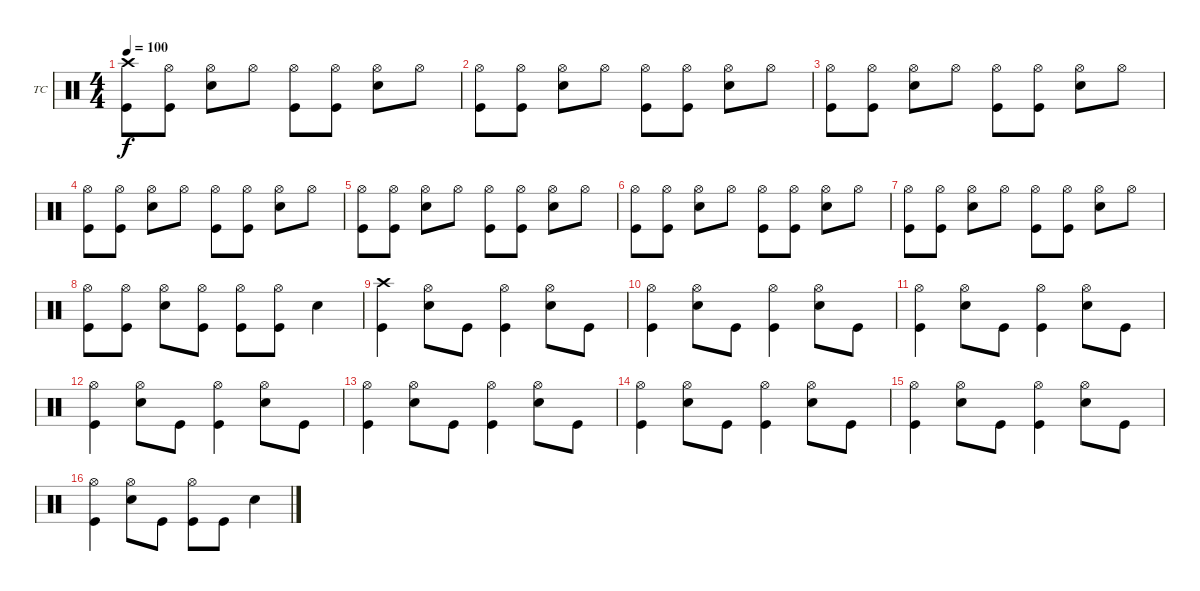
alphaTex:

\defaultSystemsLayout 4
\bracketExtendMode groupsimilarinstruments
\firstSystemTrackNameOrientation horizontal
\otherSystemsTrackNameOrientation horizontal
\track ("Drums - Tre Cool" "TC") {instrument percussion}
\staff {score}
\articulation defaults
\ts (4 4)
\tempo 100
\clef neutral
\ks c
("Crash high (hit)" "Kick (hit)").8{dy f} ("Hi-Hat (open)" "Kick (hit)").8 ("Hi-Hat (open)" "Snare (hit) 2").8 "Hi-Hat (open)".8 ("Hi-Hat (open)" "Kick (hit)").8 ("Hi-Hat (open)" "Kick (hit)").8 ("Hi-Hat (open)" "Snare (hit) 2").8 "Hi-Hat (open)".8 |
("Hi-Hat (open)" "Kick (hit)").8 ("Hi-Hat (open)" "Kick (hit)").8 ("Hi-Hat (open)" "Snare (hit) 2").8 "Hi-Hat (open)".8 ("Hi-Hat (open)" "Kick (hit)").8 ("Hi-Hat (open)" "Kick (hit)").8 ("Hi-Hat (open)" "Snare (hit) 2").8 "Hi-Hat (open)".8 |
("Hi-Hat (open)" "Kick (hit)").8 ("Hi-Hat (open)" "Kick (hit)").8 ("Hi-Hat (open)" "Snare (hit) 2").8 "Hi-Hat (open)".8 ("Hi-Hat (open)" "Kick (hit)").8 ("Hi-Hat (open)" "Kick (hit)").8 ("Hi-Hat (open)" "Snare (hit) 2").8 "Hi-Hat (open)".8 |
("Hi-Hat (open)" "Kick (hit)").8 ("Hi-Hat (open)" "Kick (hit)").8 ("Hi-Hat (open)" "Snare (hit) 2").8 "Hi-Hat (open)".8 ("Hi-Hat (open)" "Kick (hit)").8 ("Hi-Hat (open)" "Kick (hit)").8 ("Hi-Hat (open)" "Snare (hit) 2").8 "Hi-Hat (open)".8 |
("Hi-Hat (open)" "Kick (hit)").8 ("Hi-Hat (open)" "Kick (hit)").8 ("Hi-Hat (open)" "Snare (hit) 2").8 "Hi-Hat (open)".8 ("Hi-Hat (open)" "Kick (hit)").8 ("Hi-Hat (open)" "Kick (hit)").8 ("Hi-Hat (open)" "Snare (hit) 2").8 "Hi-Hat (open)".8 |
("Hi-Hat (open)" "Kick (hit)").8 ("Hi-Hat (open)" "Kick (hit)").8 ("Hi-Hat (open)" "Snare (hit) 2").8 "Hi-Hat (open)".8 ("Hi-Hat (open)" "Kick (hit)").8 ("Hi-Hat (open)" "Kick (hit)").8 ("Hi-Hat (open)" "Snare (hit) 2").8 "Hi-Hat (open)".8 |
("Hi-Hat (open)" "Kick (hit)").8 ("Hi-Hat (open)" "Kick (hit)").8 ("Hi-Hat (open)" "Snare (hit) 2").8 "Hi-Hat (open)".8 ("Hi-Hat (open)" "Kick (hit)").8 ("Hi-Hat (open)" "Kick (hit)").8 ("Hi-Hat (open)" "Snare (hit) 2").8 "Hi-Hat (open)".8 |
("Hi-Hat (open)" "Kick (hit)").8 ("Hi-Hat (open)" "Kick (hit)").8 ("Hi-Hat (open)" "Snare (hit) 2").8 ("Hi-Hat (open)" "Kick (hit)").8 ("Hi-Hat (open)" "Kick (hit)").8 ("Hi-Hat (open)" "Kick (hit)").8 "Snare (hit) 2".4 |
("Crash high (hit)" "Kick (hit)").4 ("Hi-Hat (open)" "Snare (hit) 2").8 "Kick (hit)".8 ("Hi-Hat (open)" "Kick (hit)").4 ("Hi-Hat (open)" "Snare (hit) 2").8 "Kick (hit)".8 |
("Hi-Hat (open)" "Kick (hit)").4 ("Hi-Hat (open)" "Snare (hit) 2").8 "Kick (hit)".8 ("Hi-Hat (open)" "Kick (hit)").4 ("Hi-Hat (open)" "Snare (hit) 2").8 "Kick (hit)".8 |
("Hi-Hat (open)" "Kick (hit)").4 ("Hi-Hat (open)" "Snare (hit) 2").8 "Kick (hit)".8 ("Hi-Hat (open)" "Kick (hit)").4 ("Hi-Hat (open)" "Snare (hit) 2").8 "Kick (hit)".8 |
("Hi-Hat (open)" "Kick (hit)").4 ("Hi-Hat (open)" "Snare (hit) 2").8 "Kick (hit)".8 ("Hi-Hat (open)" "Kick (hit)").4 ("Hi-Hat (open)" "Snare (hit) 2").8 "Kick (hit)".8 |
("Hi-Hat (open)" "Kick (hit)").4 ("Hi-Hat (open)" "Snare (hit) 2").8 "Kick (hit)".8 ("Hi-Hat (open)" "Kick (hit)").4 ("Hi-Hat (open)" "Snare (hit) 2").8 "Kick (hit)".8 |
("Hi-Hat (open)" "Kick (hit)").4 ("Hi-Hat (open)" "Snare (hit) 2").8 "Kick (hit)".8 ("Hi-Hat (open)" "Kick (hit)").4 ("Hi-Hat (open)" "Snare (hit) 2").8 "Kick (hit)".8 |
("Hi-Hat (open)" "Kick (hit)").4 ("Hi-Hat (open)" "Snare (hit) 2").8 "Kick (hit)".8 ("Hi-Hat (open)" "Kick (hit)").4 ("Hi-Hat (open)" "Snare (hit) 2").8 "Kick (hit)".8 |
("Hi-Hat (open)" "Kick (hit)").4 ("Hi-Hat (open)" "Snare (hit) 2").8 "Kick (hit)".8 ("Hi-Hat (open)" "Kick (hit)").8 "Kick (hit)".8 "Snare (hit) 2".4
